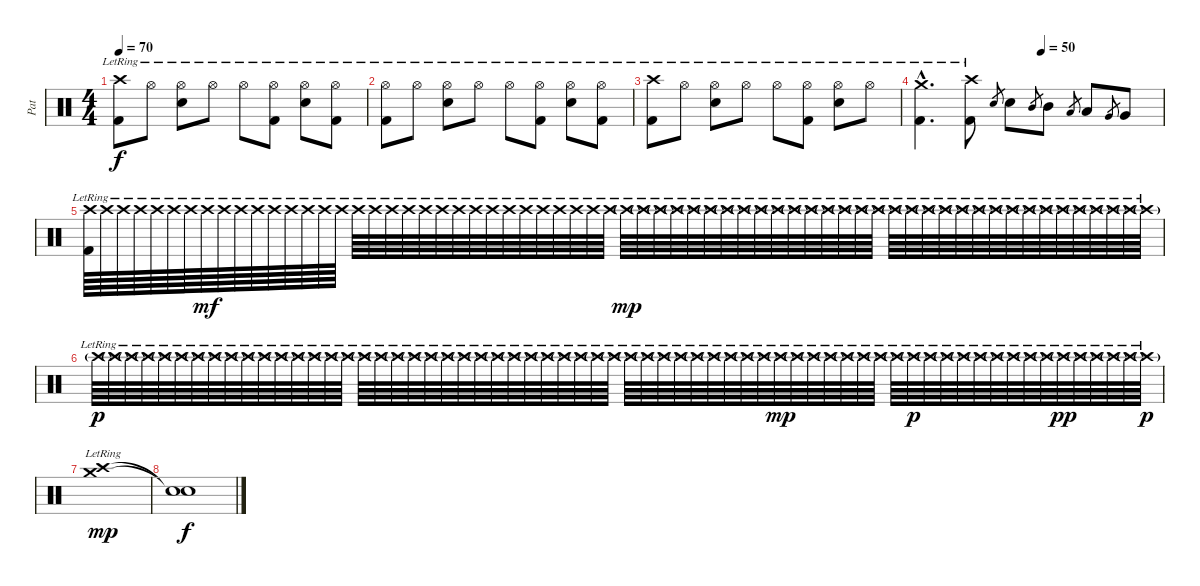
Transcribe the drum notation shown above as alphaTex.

\track ("Pat" "Pat") {instrument percussion}
\staff {score}
\articulation defaults
\ts (4 4)
\tempo 70
\clef neutral
\ks c
("Crash high (hit)"{lr} "Kick (hit) 2"{lr}).8{dy f} "Hi-Hat (open)"{lr}.8 ("Hi-Hat (open)"{lr} "Electric Snare (hit)"{lr}).8 "Hi-Hat (open)"{lr}.8 "Hi-Hat (open)"{lr}.8 ("Hi-Hat (open)"{lr} "Kick (hit) 2"{lr}).8 ("Hi-Hat (open)"{lr} "Electric Snare (hit)"{lr}).8 ("Hi-Hat (open)"{lr} "Kick (hit) 2"{lr}).8 |
("Hi-Hat (open)"{lr} "Kick (hit) 2"{lr}).8 "Hi-Hat (open)"{lr}.8 ("Hi-Hat (open)"{lr} "Electric Snare (hit)"{lr}).8 "Hi-Hat (open)"{lr}.8 "Hi-Hat (open)"{lr}.8 ("Hi-Hat (open)"{lr} "Kick (hit) 2"{lr}).8 ("Hi-Hat (open)"{lr} "Electric Snare (hit)"{lr}).8 ("Hi-Hat (open)"{lr} "Kick (hit) 2"{lr}).8 |
("Crash high (hit)"{lr} "Kick (hit) 2"{lr}).8 "Hi-Hat (open)"{lr}.8 ("Hi-Hat (open)"{lr} "Electric Snare (hit)"{lr}).8 "Hi-Hat (open)"{lr}.8 "Hi-Hat (open)"{lr}.8 ("Hi-Hat (open)"{lr} "Kick (hit) 2"{lr}).8 ("Hi-Hat (open)"{lr} "Electric Snare (hit)"{lr}).8 "Hi-Hat (open)"{lr}.8 |
\tempo (50 0.5)
("Crash medium (hit)"{hac lr} "Kick (hit) 2"{hac lr}).4{d} ("Crash high (hit)"{lr} "Kick (hit) 2"{lr}).8 "Electric Snare (hit)".8{gr} "Electric Snare (hit)".8 "Mid Tom (hit)".8{gr} "Mid Tom (hit)".8 "Low Tom (hit)".8{gr} "Low Tom (hit)".8 "Very Low Tom (hit)".8{gr} "Very Low Tom (hit)".8 |
("Crash high (hit)"{lr} "Kick (hit) 2"{lr}).64 "Crash high (hit)"{lr}.64 "Crash high (hit)"{lr}.64 "Crash high (hit)"{lr}.64 "Crash high (hit)"{lr}.64 "Crash high (hit)"{lr}.64 "Crash high (hit)"{lr}.64 "Crash high (hit)"{lr}.64{dy mf} "Crash high (hit)"{lr}.64 "Crash high (hit)"{lr}.64 "Crash high (hit)"{lr}.64 "Crash high (hit)"{lr}.64 "Crash high (hit)"{lr}.64 "Crash high (hit)"{lr}.64 "Crash high (hit)"{lr}.64 "Crash high (hit)"{lr}.64 "Crash high (hit)"{lr}.64 "Crash high (hit)"{lr}.64 "Crash high (hit)"{lr}.64 "Crash high (hit)"{lr}.64 "Crash high (hit)"{lr}.64 "Crash high (hit)"{lr}.64 "Crash high (hit)"{lr}.64 "Crash high (hit)"{lr}.64 "Crash high (hit)"{lr}.64 "Crash high (hit)"{lr}.64 "Crash high (hit)"{lr}.64 "Crash high (hit)"{lr}.64 "Crash high (hit)"{lr}.64 "Crash high (hit)"{lr}.64 "Crash high (hit)"{lr}.64 "Crash high (hit)"{lr}.64 "Crash high (hit)"{g lr}.64{dy mp} "Crash high (hit)"{g lr}.64 "Crash high (hit)"{g lr}.64 "Crash high (hit)"{g lr}.64 "Crash high (hit)"{g lr}.64 "Crash high (hit)"{g lr}.64 "Crash high (hit)"{g lr}.64 "Crash high (hit)"{g lr}.64 "Crash high (hit)"{g lr}.64 "Crash high (hit)"{g lr}.64 "Crash high (hit)"{g lr}.64 "Crash high (hit)"{g lr}.64 "Crash high (hit)"{g lr}.64 "Crash high (hit)"{g lr}.64 "Crash high (hit)"{g lr}.64 "Crash high (hit)"{g lr}.64 "Crash high (hit)"{g lr}.64 "Crash high (hit)"{g lr}.64 "Crash high (hit)"{g lr}.64 "Crash high (hit)"{g lr}.64 "Crash high (hit)"{g lr}.64 "Crash high (hit)"{g lr}.64 "Crash high (hit)"{g lr}.64 "Crash high (hit)"{g lr}.64 "Crash high (hit)"{g lr}.64 "Crash high (hit)"{g lr}.64 "Crash high (hit)"{g lr}.64 "Crash high (hit)"{g lr}.64 "Crash high (hit)"{g lr}.64 "Crash high (hit)"{g lr}.64 "Crash high (hit)"{g lr}.64 "Crash high (hit)"{g lr}.64 |
"Crash high (hit)"{g lr}.64{dy p} "Crash high (hit)"{g lr}.64 "Crash high (hit)"{g lr}.64 "Crash high (hit)"{g lr}.64 "Crash high (hit)"{g lr}.64 "Crash high (hit)"{g lr}.64 "Crash high (hit)"{g lr}.64 "Crash high (hit)"{g lr}.64 "Crash high (hit)"{g lr}.64 "Crash high (hit)"{g lr}.64 "Crash high (hit)"{g lr}.64 "Crash high (hit)"{g lr}.64 "Crash high (hit)"{g lr}.64 "Crash high (hit)"{g lr}.64 "Crash high (hit)"{g lr}.64 "Crash high (hit)"{g lr}.64 "Crash high (hit)"{g lr}.64 "Crash high (hit)"{g lr}.64 "Crash high (hit)"{g lr}.64 "Crash high (hit)"{g lr}.64 "Crash high (hit)"{g lr}.64 "Crash high (hit)"{g lr}.64 "Crash high (hit)"{g lr}.64 "Crash high (hit)"{g lr}.64 "Crash high (hit)"{g lr}.64 "Crash high (hit)"{g lr}.64 "Crash high (hit)"{g lr}.64 "Crash high (hit)"{g lr}.64 "Crash high (hit)"{g lr}.64 "Crash high (hit)"{g lr}.64 "Crash high (hit)"{g lr}.64 "Crash high (hit)"{g lr}.64 "Crash high (hit)"{g lr}.64 "Crash high (hit)"{g lr}.64 "Crash high (hit)"{g lr}.64 "Crash high (hit)"{g lr}.64 "Crash high (hit)"{g lr}.64 "Crash high (hit)"{g lr}.64 "Crash high (hit)"{g lr}.64 "Crash high (hit)"{g lr}.64 "Crash high (hit)"{g lr}.64 "Crash high (hit)"{g lr}.64{dy mp} "Crash high (hit)"{g lr}.64 "Crash high (hit)"{g lr}.64 "Crash high (hit)"{g lr}.64 "Crash high (hit)"{g lr}.64 "Crash high (hit)"{g lr}.64 "Crash high (hit)"{g lr}.64 "Crash high (hit)"{g lr}.64 "Crash high (hit)"{g lr}.64{dy p} "Crash high (hit)"{g lr}.64 "Crash high (hit)"{g lr}.64 "Crash high (hit)"{g lr}.64 "Crash high (hit)"{g lr}.64 "Crash high (hit)"{g lr}.64 "Crash high (hit)"{g lr}.64 "Crash high (hit)"{g lr}.64 "Crash high (hit)"{g lr}.64 "Crash high (hit)"{g lr}.64{dy pp} "Crash high (hit)"{g lr}.64 "Crash high (hit)"{g lr}.64 "Crash high (hit)"{g lr}.64 "Crash high (hit)"{g lr}.64 "Crash high (hit)"{g lr}.64{dy p} |
("Crash high (hit)"{lr} "Crash medium (hit)"{lr}).1{dy mp} |
("Snare (hit)"{t} "Snare (hit)"{t}).1{dy f}
